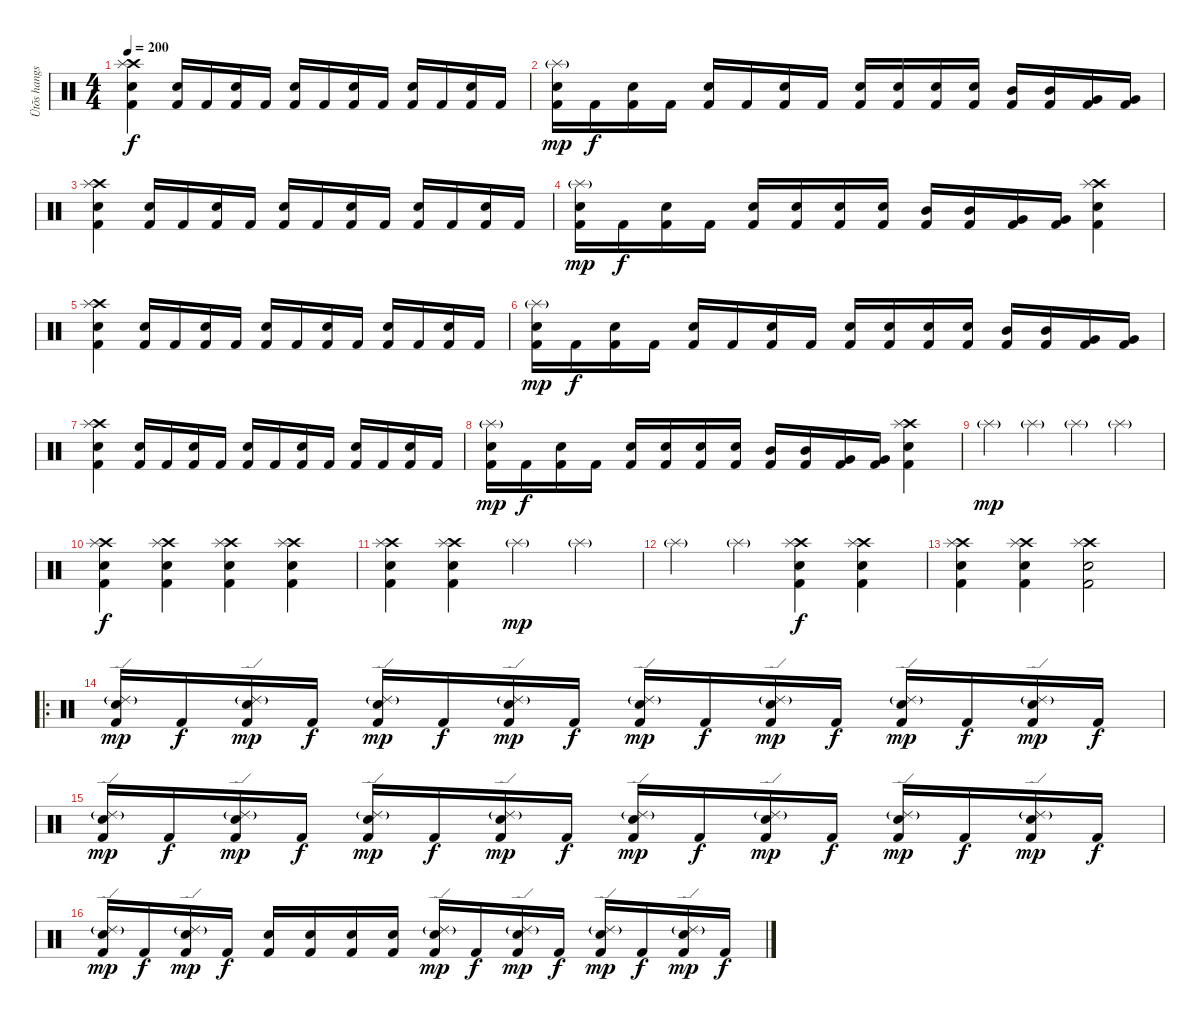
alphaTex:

\track ("Ütõs hangszer" "Ütõs hangs") {instrument percussion}
\staff {score}
\articulation defaults
\ts (4 4)
\tempo 200
\clef neutral
\ks c
("Crash high (hit)" "Splash (hit)" "Electric Snare (hit)" "Kick (hit) 2").4{dy f} ("Electric Snare (hit)" "Kick (hit) 2").16 "Kick (hit) 2".16 ("Electric Snare (hit)" "Kick (hit) 2").16 "Kick (hit) 2".16 ("Electric Snare (hit)" "Kick (hit) 2").16 "Kick (hit) 2".16 ("Electric Snare (hit)" "Kick (hit) 2").16 "Kick (hit) 2".16 ("Electric Snare (hit)" "Kick (hit) 2").16 "Kick (hit) 2".16 ("Electric Snare (hit)" "Kick (hit) 2").16 "Kick (hit) 2".16 |
("Splash (hit)"{g} "Electric Snare (hit)" "Kick (hit) 2").16{dy mp} "Kick (hit) 2".16{dy f} ("Electric Snare (hit)" "Kick (hit) 2").16 "Kick (hit) 2".16 ("Electric Snare (hit)" "Kick (hit) 2").16 "Kick (hit) 2".16 ("Electric Snare (hit)" "Kick (hit) 2").16 "Kick (hit) 2".16 ("Electric Snare (hit)" "Kick (hit) 2").16 ("Electric Snare (hit)" "Kick (hit) 2").16 ("Electric Snare (hit)" "Kick (hit) 2").16 ("Electric Snare (hit)" "Kick (hit) 2").16 ("Mid Tom (hit)" "Kick (hit) 2").16 ("Mid Tom (hit)" "Kick (hit) 2").16 ("Very Low Tom (hit)" "Kick (hit) 2").16 ("Very Low Tom (hit)" "Kick (hit) 2").16 |
("Crash high (hit)" "Splash (hit)" "Electric Snare (hit)" "Kick (hit) 2").4 ("Electric Snare (hit)" "Kick (hit) 2").16 "Kick (hit) 2".16 ("Electric Snare (hit)" "Kick (hit) 2").16 "Kick (hit) 2".16 ("Electric Snare (hit)" "Kick (hit) 2").16 "Kick (hit) 2".16 ("Electric Snare (hit)" "Kick (hit) 2").16 "Kick (hit) 2".16 ("Electric Snare (hit)" "Kick (hit) 2").16 "Kick (hit) 2".16 ("Electric Snare (hit)" "Kick (hit) 2").16 "Kick (hit) 2".16 |
("Splash (hit)"{g} "Electric Snare (hit)" "Kick (hit) 2").16{dy mp} "Kick (hit) 2".16{dy f} ("Electric Snare (hit)" "Kick (hit) 2").16 "Kick (hit) 2".16 ("Electric Snare (hit)" "Kick (hit) 2").16 ("Electric Snare (hit)" "Kick (hit) 2").16 ("Electric Snare (hit)" "Kick (hit) 2").16 ("Electric Snare (hit)" "Kick (hit) 2").16 ("Mid Tom (hit)" "Kick (hit) 2").16 ("Mid Tom (hit)" "Kick (hit) 2").16 ("Very Low Tom (hit)" "Kick (hit) 2").16 ("Very Low Tom (hit)" "Kick (hit) 2").16 ("Crash high (hit)" "Splash (hit)" "Electric Snare (hit)" "Kick (hit) 2").4 |
("Crash high (hit)" "Splash (hit)" "Electric Snare (hit)" "Kick (hit) 2").4 ("Electric Snare (hit)" "Kick (hit) 2").16 "Kick (hit) 2".16 ("Electric Snare (hit)" "Kick (hit) 2").16 "Kick (hit) 2".16 ("Electric Snare (hit)" "Kick (hit) 2").16 "Kick (hit) 2".16 ("Electric Snare (hit)" "Kick (hit) 2").16 "Kick (hit) 2".16 ("Electric Snare (hit)" "Kick (hit) 2").16 "Kick (hit) 2".16 ("Electric Snare (hit)" "Kick (hit) 2").16 "Kick (hit) 2".16 |
("Splash (hit)"{g} "Electric Snare (hit)" "Kick (hit) 2").16{dy mp} "Kick (hit) 2".16{dy f} ("Electric Snare (hit)" "Kick (hit) 2").16 "Kick (hit) 2".16 ("Electric Snare (hit)" "Kick (hit) 2").16 "Kick (hit) 2".16 ("Electric Snare (hit)" "Kick (hit) 2").16 "Kick (hit) 2".16 ("Electric Snare (hit)" "Kick (hit) 2").16 ("Electric Snare (hit)" "Kick (hit) 2").16 ("Electric Snare (hit)" "Kick (hit) 2").16 ("Electric Snare (hit)" "Kick (hit) 2").16 ("Mid Tom (hit)" "Kick (hit) 2").16 ("Mid Tom (hit)" "Kick (hit) 2").16 ("Very Low Tom (hit)" "Kick (hit) 2").16 ("Very Low Tom (hit)" "Kick (hit) 2").16 |
("Crash high (hit)" "Splash (hit)" "Electric Snare (hit)" "Kick (hit) 2").4 ("Electric Snare (hit)" "Kick (hit) 2").16 "Kick (hit) 2".16 ("Electric Snare (hit)" "Kick (hit) 2").16 "Kick (hit) 2".16 ("Electric Snare (hit)" "Kick (hit) 2").16 "Kick (hit) 2".16 ("Electric Snare (hit)" "Kick (hit) 2").16 "Kick (hit) 2".16 ("Electric Snare (hit)" "Kick (hit) 2").16 "Kick (hit) 2".16 ("Electric Snare (hit)" "Kick (hit) 2").16 "Kick (hit) 2".16 |
("Splash (hit)"{g} "Electric Snare (hit)" "Kick (hit) 2").16{dy mp} "Kick (hit) 2".16{dy f} ("Electric Snare (hit)" "Kick (hit) 2").16 "Kick (hit) 2".16 ("Electric Snare (hit)" "Kick (hit) 2").16 ("Electric Snare (hit)" "Kick (hit) 2").16 ("Electric Snare (hit)" "Kick (hit) 2").16 ("Electric Snare (hit)" "Kick (hit) 2").16 ("Mid Tom (hit)" "Kick (hit) 2").16 ("Mid Tom (hit)" "Kick (hit) 2").16 ("Very Low Tom (hit)" "Kick (hit) 2").16 ("Very Low Tom (hit)" "Kick (hit) 2").16 ("Crash high (hit)" "Splash (hit)" "Electric Snare (hit)" "Kick (hit) 2").4 |
"Splash (hit)"{g}.4{dy mp} "Splash (hit)"{g}.4 "Splash (hit)"{g}.4 "Splash (hit)"{g}.4 |
("Crash high (hit)" "Splash (hit)" "Electric Snare (hit)" "Kick (hit) 2").4{dy f} ("Crash high (hit)" "Splash (hit)" "Electric Snare (hit)" "Kick (hit) 2").4 ("Crash high (hit)" "Splash (hit)" "Electric Snare (hit)" "Kick (hit) 2").4 ("Crash high (hit)" "Splash (hit)" "Electric Snare (hit)" "Kick (hit) 2").4 |
("Crash high (hit)" "Splash (hit)" "Electric Snare (hit)" "Kick (hit) 2").4 ("Crash high (hit)" "Splash (hit)" "Electric Snare (hit)" "Kick (hit) 2").4 "Splash (hit)"{g}.4{dy mp} "Splash (hit)"{g}.4 |
"Splash (hit)"{g}.4 "Splash (hit)"{g}.4 ("Crash high (hit)" "Splash (hit)" "Electric Snare (hit)" "Kick (hit) 2").4{dy f} ("Crash high (hit)" "Splash (hit)" "Electric Snare (hit)" "Kick (hit) 2").4 |
("Crash high (hit)" "Splash (hit)" "Electric Snare (hit)" "Kick (hit) 2").4 ("Crash high (hit)" "Splash (hit)" "Electric Snare (hit)" "Kick (hit) 2").4 ("Crash high (hit)" "Splash (hit)" "Electric Snare (hit)" "Kick (hit) 2").2 |
\ro
("Ride (edge) 2"{g} "Electric Snare (hit)" "Kick (hit) 2").16{dy mp} "Kick (hit) 2".16{dy f} ("Ride (edge) 2"{g} "Electric Snare (hit)" "Kick (hit) 2").16{dy mp} "Kick (hit) 2".16{dy f} ("Ride (edge) 2"{g} "Electric Snare (hit)" "Kick (hit) 2").16{dy mp} "Kick (hit) 2".16{dy f} ("Ride (edge) 2"{g} "Electric Snare (hit)" "Kick (hit) 2").16{dy mp} "Kick (hit) 2".16{dy f} ("Ride (edge) 2"{g} "Electric Snare (hit)" "Kick (hit) 2").16{dy mp} "Kick (hit) 2".16{dy f} ("Ride (edge) 2"{g} "Electric Snare (hit)" "Kick (hit) 2").16{dy mp} "Kick (hit) 2".16{dy f} ("Ride (edge) 2"{g} "Electric Snare (hit)" "Kick (hit) 2").16{dy mp} "Kick (hit) 2".16{dy f} ("Ride (edge) 2"{g} "Electric Snare (hit)" "Kick (hit) 2").16{dy mp} "Kick (hit) 2".16{dy f} |
("Ride (edge) 2"{g} "Electric Snare (hit)" "Kick (hit) 2").16{dy mp} "Kick (hit) 2".16{dy f} ("Ride (edge) 2"{g} "Electric Snare (hit)" "Kick (hit) 2").16{dy mp} "Kick (hit) 2".16{dy f} ("Ride (edge) 2"{g} "Electric Snare (hit)" "Kick (hit) 2").16{dy mp} "Kick (hit) 2".16{dy f} ("Ride (edge) 2"{g} "Electric Snare (hit)" "Kick (hit) 2").16{dy mp} "Kick (hit) 2".16{dy f} ("Ride (edge) 2"{g} "Electric Snare (hit)" "Kick (hit) 2").16{dy mp} "Kick (hit) 2".16{dy f} ("Ride (edge) 2"{g} "Electric Snare (hit)" "Kick (hit) 2").16{dy mp} "Kick (hit) 2".16{dy f} ("Ride (edge) 2"{g} "Electric Snare (hit)" "Kick (hit) 2").16{dy mp} "Kick (hit) 2".16{dy f} ("Ride (edge) 2"{g} "Electric Snare (hit)" "Kick (hit) 2").16{dy mp} "Kick (hit) 2".16{dy f} |
("Ride (edge) 2"{g} "Electric Snare (hit)" "Kick (hit) 2").16{dy mp} "Kick (hit) 2".16{dy f} ("Ride (edge) 2"{g} "Electric Snare (hit)" "Kick (hit) 2").16{dy mp} "Kick (hit) 2".16{dy f} ("Electric Snare (hit)" "Kick (hit) 2").16 ("Electric Snare (hit)" "Kick (hit) 2").16 ("Electric Snare (hit)" "Kick (hit) 2").16 ("Electric Snare (hit)" "Kick (hit) 2").16 ("Ride (edge) 2"{g} "Electric Snare (hit)" "Kick (hit) 2").16{dy mp} "Kick (hit) 2".16{dy f} ("Ride (edge) 2"{g} "Electric Snare (hit)" "Kick (hit) 2").16{dy mp} "Kick (hit) 2".16{dy f} ("Ride (edge) 2"{g} "Electric Snare (hit)" "Kick (hit) 2").16{dy mp} "Kick (hit) 2".16{dy f} ("Ride (edge) 2"{g} "Electric Snare (hit)" "Kick (hit) 2").16{dy mp} "Kick (hit) 2".16{dy f}
